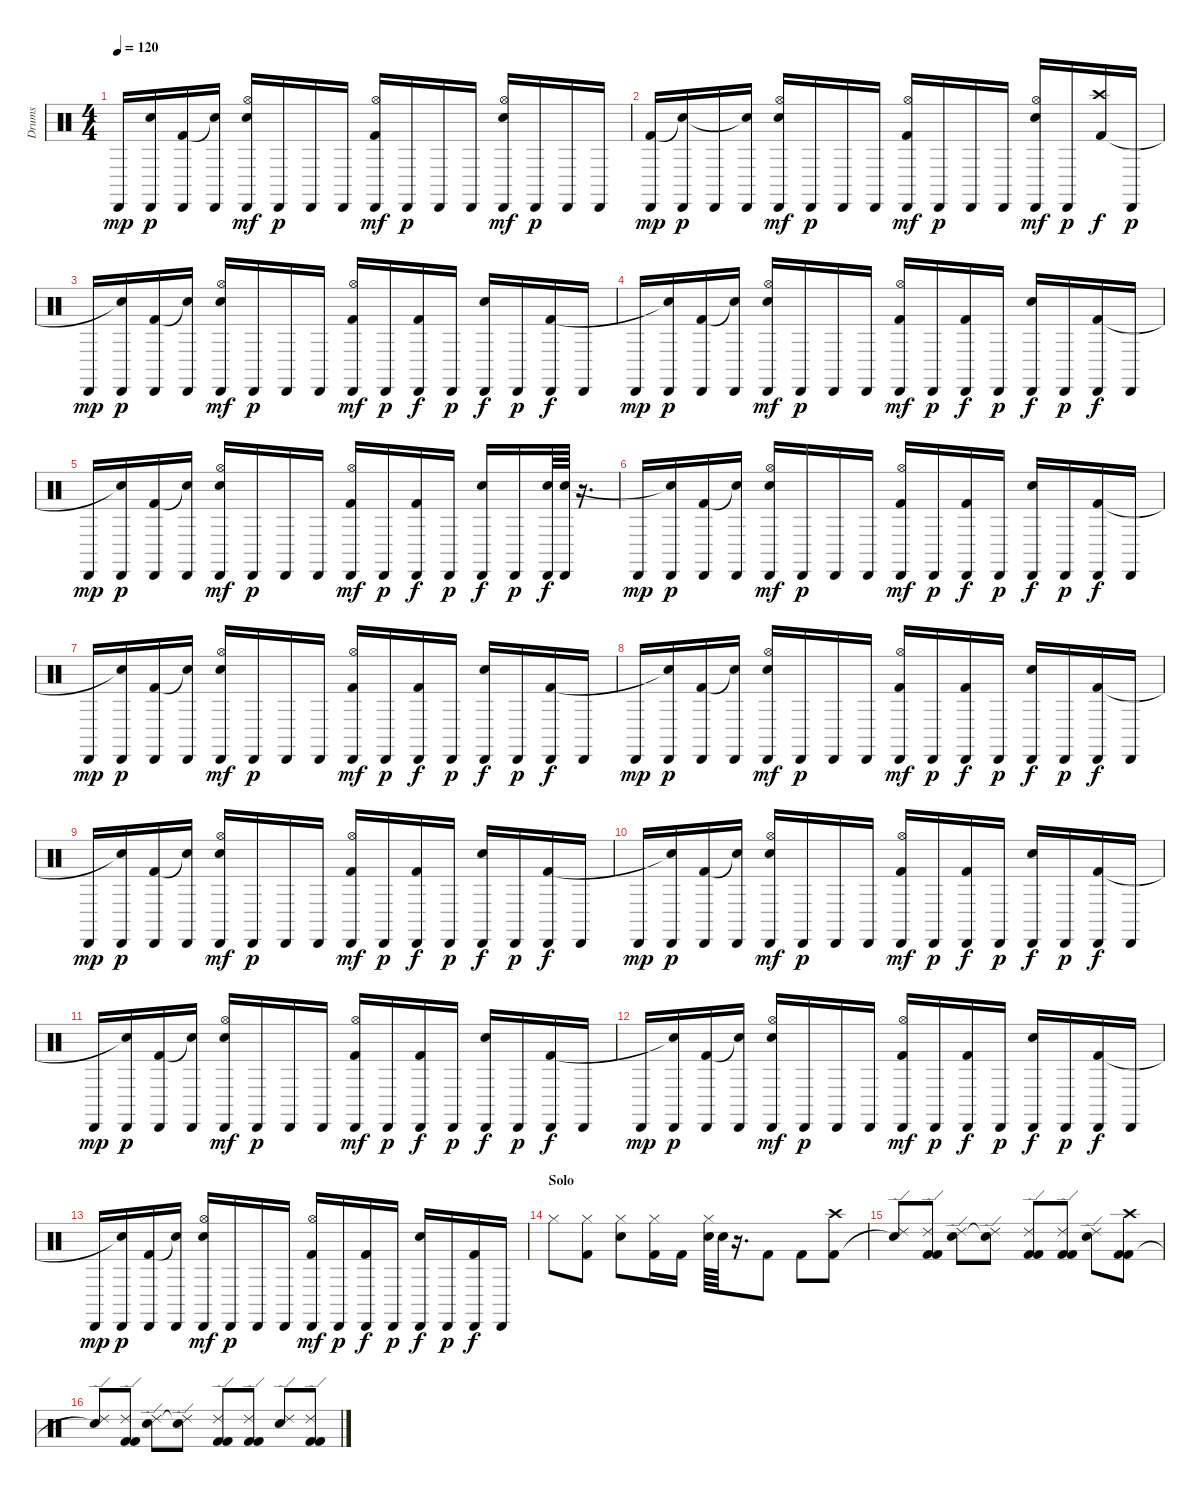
\track ("Drums" "Drums") {instrument percussion}
\staff {score}
\articulation defaults
\ts (4 4)
\tempo 120
\clef neutral
\ks c "Cabasa (hit)".16{dy mp}
("Cabasa (hit)" "Snare (hit)"{t}).16{dy p} ("Cabasa (hit)" "Kick (hit) 2").16 ("Cabasa (hit)" "Snare (hit)"{t}).16 ("Cabasa (hit)" "Hi-Hat (open)" "Snare (hit) 2").16{dy mf} "Cabasa (hit)".16{dy p} "Cabasa (hit)".16 "Cabasa (hit)".16 ("Cabasa (hit)" "Hi-Hat (open)" "Kick (hit) 2").16{dy mf} "Cabasa (hit)".16{dy p} "Cabasa (hit)".16 "Cabasa (hit)".16 ("Cabasa (hit)" "Hi-Hat (open)" "Snare (hit) 2").16{dy mf} "Cabasa (hit)".16{dy p} "Cabasa (hit)".16 "Cabasa (hit)".16 |
("Cabasa (hit)" "Kick (hit) 2").16{dy mp} ("Cabasa (hit)" "Snare (hit)"{t}).16{dy p} "Cabasa (hit)".16 ("Cabasa (hit)" "Snare (hit)"{t}).16 ("Cabasa (hit)" "Hi-Hat (open)" "Snare (hit) 2").16{dy mf} "Cabasa (hit)".16{dy p} "Cabasa (hit)".16 "Cabasa (hit)".16 ("Cabasa (hit)" "Hi-Hat (open)" "Kick (hit) 2").16{dy mf} "Cabasa (hit)".16{dy p} "Cabasa (hit)".16 "Cabasa (hit)".16 ("Cabasa (hit)" "Hi-Hat (open)" "Snare (hit) 2").16{dy mf} "Cabasa (hit)".16{dy p} ("Crash high (hit)" "Kick (hit) 2").16{dy f} "Cabasa (hit)".16{dy p} |
"Cabasa (hit)".16{dy mp} ("Cabasa (hit)" "Snare (hit)"{t}).16{dy p} ("Cabasa (hit)" "Kick (hit) 2").16 ("Cabasa (hit)" "Snare (hit)"{t}).16 ("Cabasa (hit)" "Hi-Hat (open)" "Snare (hit) 2").16{dy mf} "Cabasa (hit)".16{dy p} "Cabasa (hit)".16 "Cabasa (hit)".16 ("Cabasa (hit)" "Hi-Hat (open)" "Kick (hit) 2").16{dy mf} "Cabasa (hit)".16{dy p} ("Cabasa (hit)" "Kick (hit) 2").16{dy f} "Cabasa (hit)".16{dy p} ("Cabasa (hit)" "Snare (hit) 2").16{dy f} "Cabasa (hit)".16{dy p} ("Cabasa (hit)" "Kick (hit) 2").16{dy f} "Cabasa (hit)".16 |
"Cabasa (hit)".16{dy mp} ("Cabasa (hit)" "Snare (hit)"{t}).16{dy p} ("Cabasa (hit)" "Kick (hit) 2").16 ("Cabasa (hit)" "Snare (hit)"{t}).16 ("Cabasa (hit)" "Hi-Hat (open)" "Snare (hit) 2").16{dy mf} "Cabasa (hit)".16{dy p} "Cabasa (hit)".16 "Cabasa (hit)".16 ("Cabasa (hit)" "Hi-Hat (open)" "Kick (hit) 2").16{dy mf} "Cabasa (hit)".16{dy p} ("Cabasa (hit)" "Kick (hit) 2").16{dy f} "Cabasa (hit)".16{dy p} ("Cabasa (hit)" "Snare (hit) 2").16{dy f} "Cabasa (hit)".16{dy p} ("Cabasa (hit)" "Kick (hit) 2").16{dy f} "Cabasa (hit)".16 |
"Cabasa (hit)".16{dy mp} ("Cabasa (hit)" "Snare (hit)"{t}).16{dy p} ("Cabasa (hit)" "Kick (hit) 2").16 ("Cabasa (hit)" "Snare (hit)"{t}).16 ("Cabasa (hit)" "Hi-Hat (open)" "Snare (hit) 2").16{dy mf} "Cabasa (hit)".16{dy p} "Cabasa (hit)".16 "Cabasa (hit)".16 ("Cabasa (hit)" "Hi-Hat (open)" "Kick (hit) 2").16{dy mf} "Cabasa (hit)".16{dy p} ("Cabasa (hit)" "Kick (hit) 2").16{dy f} "Cabasa (hit)".16{dy p} ("Cabasa (hit)" "Snare (hit) 2").16{dy f} "Cabasa (hit)".16{dy p} ("Cabasa (hit)" "Snare (hit) 2").64{dy f} ("Cabasa (hit)" "Snare (hit) 2").64 r.16{d} |
"Cabasa (hit)".16{dy mp} ("Cabasa (hit)" "Snare (hit)"{t}).16{dy p} ("Cabasa (hit)" "Kick (hit) 2").16 ("Cabasa (hit)" "Snare (hit)"{t}).16 ("Cabasa (hit)" "Hi-Hat (open)" "Snare (hit) 2").16{dy mf} "Cabasa (hit)".16{dy p} "Cabasa (hit)".16 "Cabasa (hit)".16 ("Cabasa (hit)" "Hi-Hat (open)" "Kick (hit) 2").16{dy mf} "Cabasa (hit)".16{dy p} ("Cabasa (hit)" "Kick (hit) 2").16{dy f} "Cabasa (hit)".16{dy p} ("Cabasa (hit)" "Snare (hit) 2").16{dy f} "Cabasa (hit)".16{dy p} ("Cabasa (hit)" "Kick (hit) 2").16{dy f} "Cabasa (hit)".16 |
"Cabasa (hit)".16{dy mp} ("Cabasa (hit)" "Snare (hit)"{t}).16{dy p} ("Cabasa (hit)" "Kick (hit) 2").16 ("Cabasa (hit)" "Snare (hit)"{t}).16 ("Cabasa (hit)" "Hi-Hat (open)" "Snare (hit) 2").16{dy mf} "Cabasa (hit)".16{dy p} "Cabasa (hit)".16 "Cabasa (hit)".16 ("Cabasa (hit)" "Hi-Hat (open)" "Kick (hit) 2").16{dy mf} "Cabasa (hit)".16{dy p} ("Cabasa (hit)" "Kick (hit) 2").16{dy f} "Cabasa (hit)".16{dy p} ("Cabasa (hit)" "Snare (hit) 2").16{dy f} "Cabasa (hit)".16{dy p} ("Cabasa (hit)" "Kick (hit) 2").16{dy f} "Cabasa (hit)".16 |
"Cabasa (hit)".16{dy mp} ("Cabasa (hit)" "Snare (hit)"{t}).16{dy p} ("Cabasa (hit)" "Kick (hit) 2").16 ("Cabasa (hit)" "Snare (hit)"{t}).16 ("Cabasa (hit)" "Hi-Hat (open)" "Snare (hit) 2").16{dy mf} "Cabasa (hit)".16{dy p} "Cabasa (hit)".16 "Cabasa (hit)".16 ("Cabasa (hit)" "Hi-Hat (open)" "Kick (hit) 2").16{dy mf} "Cabasa (hit)".16{dy p} ("Cabasa (hit)" "Kick (hit) 2").16{dy f} "Cabasa (hit)".16{dy p} ("Cabasa (hit)" "Snare (hit) 2").16{dy f} "Cabasa (hit)".16{dy p} ("Cabasa (hit)" "Kick (hit) 2").16{dy f} "Cabasa (hit)".16 |
"Cabasa (hit)".16{dy mp} ("Cabasa (hit)" "Snare (hit)"{t}).16{dy p} ("Cabasa (hit)" "Kick (hit) 2").16 ("Cabasa (hit)" "Snare (hit)"{t}).16 ("Cabasa (hit)" "Hi-Hat (open)" "Snare (hit) 2").16{dy mf} "Cabasa (hit)".16{dy p} "Cabasa (hit)".16 "Cabasa (hit)".16 ("Cabasa (hit)" "Hi-Hat (open)" "Kick (hit) 2").16{dy mf} "Cabasa (hit)".16{dy p} ("Cabasa (hit)" "Kick (hit) 2").16{dy f} "Cabasa (hit)".16{dy p} ("Cabasa (hit)" "Snare (hit) 2").16{dy f} "Cabasa (hit)".16{dy p} ("Cabasa (hit)" "Kick (hit) 2").16{dy f} "Cabasa (hit)".16 |
"Cabasa (hit)".16{dy mp} ("Cabasa (hit)" "Snare (hit)"{t}).16{dy p} ("Cabasa (hit)" "Kick (hit) 2").16 ("Cabasa (hit)" "Snare (hit)"{t}).16 ("Cabasa (hit)" "Hi-Hat (open)" "Snare (hit) 2").16{dy mf} "Cabasa (hit)".16{dy p} "Cabasa (hit)".16 "Cabasa (hit)".16 ("Cabasa (hit)" "Hi-Hat (open)" "Kick (hit) 2").16{dy mf} "Cabasa (hit)".16{dy p} ("Cabasa (hit)" "Kick (hit) 2").16{dy f} "Cabasa (hit)".16{dy p} ("Cabasa (hit)" "Snare (hit) 2").16{dy f} "Cabasa (hit)".16{dy p} ("Cabasa (hit)" "Kick (hit) 2").16{dy f} "Cabasa (hit)".16 |
"Cabasa (hit)".16{dy mp} ("Cabasa (hit)" "Snare (hit)"{t}).16{dy p} ("Cabasa (hit)" "Kick (hit) 2").16 ("Cabasa (hit)" "Snare (hit)"{t}).16 ("Cabasa (hit)" "Hi-Hat (open)" "Snare (hit) 2").16{dy mf} "Cabasa (hit)".16{dy p} "Cabasa (hit)".16 "Cabasa (hit)".16 ("Cabasa (hit)" "Hi-Hat (open)" "Kick (hit) 2").16{dy mf} "Cabasa (hit)".16{dy p} ("Cabasa (hit)" "Kick (hit) 2").16{dy f} "Cabasa (hit)".16{dy p} ("Cabasa (hit)" "Snare (hit) 2").16{dy f} "Cabasa (hit)".16{dy p} ("Cabasa (hit)" "Kick (hit) 2").16{dy f} "Cabasa (hit)".16 |
"Cabasa (hit)".16{dy mp} ("Cabasa (hit)" "Snare (hit)"{t}).16{dy p} ("Cabasa (hit)" "Kick (hit) 2").16 ("Cabasa (hit)" "Snare (hit)"{t}).16 ("Cabasa (hit)" "Hi-Hat (open)" "Snare (hit) 2").16{dy mf} "Cabasa (hit)".16{dy p} "Cabasa (hit)".16 "Cabasa (hit)".16 ("Cabasa (hit)" "Hi-Hat (open)" "Kick (hit) 2").16{dy mf} "Cabasa (hit)".16{dy p} ("Cabasa (hit)" "Kick (hit) 2").16{dy f} "Cabasa (hit)".16{dy p} ("Cabasa (hit)" "Snare (hit) 2").16{dy f} "Cabasa (hit)".16{dy p} ("Cabasa (hit)" "Kick (hit) 2").16{dy f} "Cabasa (hit)".16 |
"Cabasa (hit)".16{dy mp} ("Cabasa (hit)" "Snare (hit)"{t}).16{dy p} ("Cabasa (hit)" "Kick (hit) 2").16 ("Cabasa (hit)" "Snare (hit)"{t}).16 ("Cabasa (hit)" "Hi-Hat (open)" "Snare (hit) 2").16{dy mf} "Cabasa (hit)".16{dy p} "Cabasa (hit)".16 "Cabasa (hit)".16 ("Cabasa (hit)" "Hi-Hat (open)" "Kick (hit) 2").16{dy mf} "Cabasa (hit)".16{dy p} ("Cabasa (hit)" "Kick (hit) 2").16{dy f} "Cabasa (hit)".16{dy p} ("Cabasa (hit)" "Snare (hit) 2").16{dy f} "Cabasa (hit)".16{dy p} ("Cabasa (hit)" "Kick (hit) 2").16{dy f} "Cabasa (hit)".16 |
\section ("" "Solo")
"Hi-Hat (closed)".8 ("Hi-Hat (closed)" "Kick (hit) 2").8 ("Hi-Hat (closed)" "Electric Snare (hit)").8 ("Hi-Hat (closed)" "Kick (hit) 2").16 "Kick (hit) 2".16 ("Hi-Hat (closed)" "Electric Snare (hit)").64 "Electric Snare (hit)".64 r.16{d} "Kick (hit) 2".8 "Kick (hit) 2".8 ("Crash high (hit)" "Kick (hit) 2").8 |
("Ride (edge) 2" "Snare (hit)"{t}).8 ("Ride (edge) 2" "Kick (hit) 2" "Kick (hit) 2").8 ("Ride (edge) 2" "Electric Snare (hit)").8 ("Ride (edge) 2" "Electric Snare (hit)"{t}).8 ("Ride (edge) 2" "Kick (hit) 2" "Kick (hit) 2").8 ("Ride (edge) 2" "Kick (hit) 2" "Kick (hit) 2").8 ("Ride (edge) 2" "Electric Snare (hit)").8 ("Crash high (hit)" "Kick (hit) 2" "Kick (hit) 2").8 |
("Ride (edge) 2" "Snare (hit)"{t}).8 ("Ride (edge) 2" "Kick (hit) 2" "Kick (hit) 2").8 ("Ride (edge) 2" "Electric Snare (hit)").8 ("Ride (edge) 2" "Electric Snare (hit)"{t}).8 ("Ride (edge) 2" "Kick (hit) 2" "Kick (hit) 2").8 ("Ride (edge) 2" "Kick (hit) 2" "Kick (hit) 2").8 ("Ride (edge) 2" "Electric Snare (hit)").8 ("Ride (edge) 2" "Kick (hit) 2" "Kick (hit) 2").8
